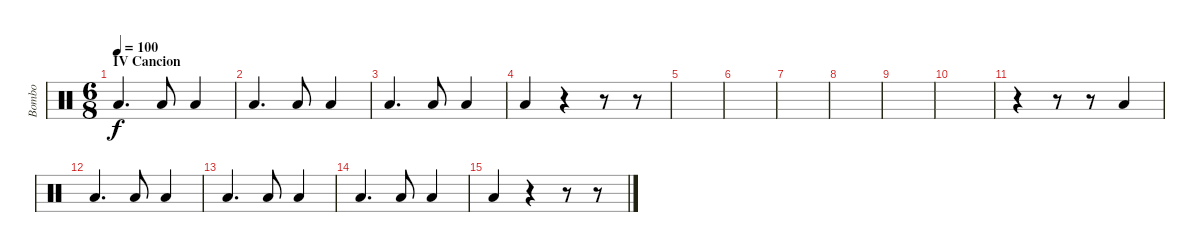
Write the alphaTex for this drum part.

\track ("Bombo" "Bombo") {instrument percussion}
\staff {score}
\articulation defaults
\ts (6 8)
\section ("" "IV Cancion")
\tempo 100
\clef neutral
\ks c "Low Floor Tom (hit)".4{d dy f} "Low Floor Tom (hit)".8 "Low Floor Tom (hit)".4
|
"Low Floor Tom (hit)".4{d} "Low Floor Tom (hit)".8 "Low Floor Tom (hit)".4 |
"Low Floor Tom (hit)".4{d} "Low Floor Tom (hit)".8 "Low Floor Tom (hit)".4 |
"Low Floor Tom (hit)".4 r.4 r.8 r.8 |
|
|
|
|
|
|
r.4 r.8 r.8 "Low Floor Tom (hit)".4 |
"Low Floor Tom (hit)".4{d} "Low Floor Tom (hit)".8 "Low Floor Tom (hit)".4 |
"Low Floor Tom (hit)".4{d} "Low Floor Tom (hit)".8 "Low Floor Tom (hit)".4 |
"Low Floor Tom (hit)".4{d} "Low Floor Tom (hit)".8 "Low Floor Tom (hit)".4 |
"Low Floor Tom (hit)".4 r.4 r.8 r.8
